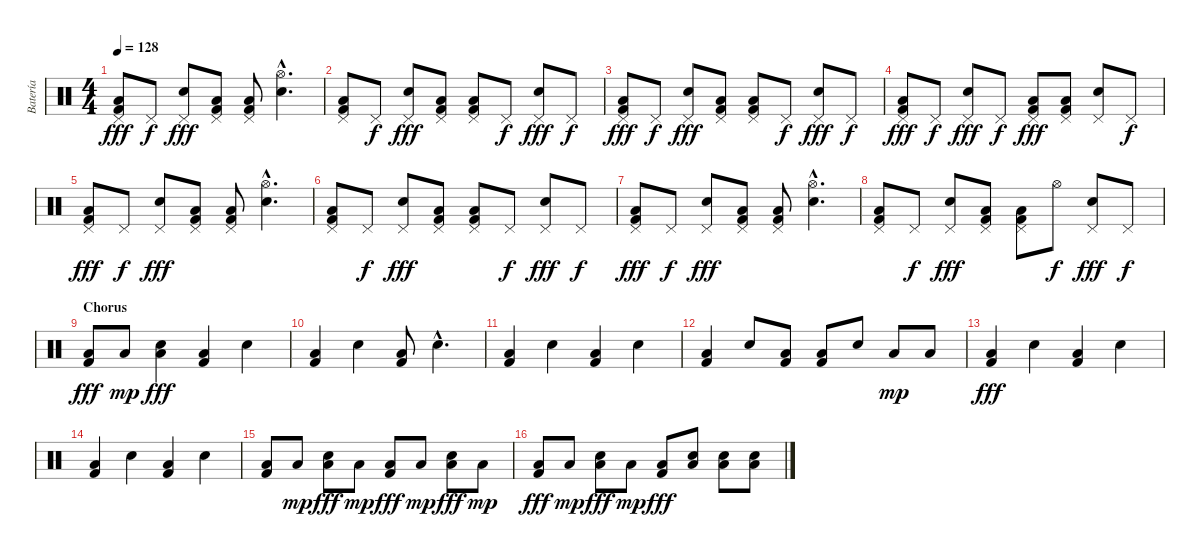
\track ("Batería" "Batería") {instrument percussion}
\staff {score}
\articulation defaults
\ts (4 4)
\tempo 128
\clef neutral
\ks c
("Low Floor Tom (hit)" "Kick (hit) 2" "Pedal Hi-Hat (hit)").8{dy fff} "Pedal Hi-Hat (hit)".8{dy f} ("Electric Snare (hit)" "Pedal Hi-Hat (hit)").8{dy fff} ("Low Floor Tom (hit)" "Kick (hit) 2" "Pedal Hi-Hat (hit)").8 ("Low Floor Tom (hit)" "Kick (hit) 2" "Pedal Hi-Hat (hit)").8 ("Electric Snare (hit)"{hac} "Hi-Hat (open)"{hac}).4{d} |
("Low Floor Tom (hit)" "Kick (hit) 2" "Pedal Hi-Hat (hit)").8 "Pedal Hi-Hat (hit)".8{dy f} ("Electric Snare (hit)" "Pedal Hi-Hat (hit)").8{dy fff} ("Low Floor Tom (hit)" "Kick (hit) 2" "Pedal Hi-Hat (hit)").8 ("Low Floor Tom (hit)" "Kick (hit) 2" "Pedal Hi-Hat (hit)").8 "Pedal Hi-Hat (hit)".8{dy f} ("Electric Snare (hit)" "Pedal Hi-Hat (hit)").8{dy fff} "Pedal Hi-Hat (hit)".8{dy f} |
("Low Floor Tom (hit)" "Kick (hit) 2" "Pedal Hi-Hat (hit)").8{dy fff} "Pedal Hi-Hat (hit)".8{dy f} ("Electric Snare (hit)" "Pedal Hi-Hat (hit)").8{dy fff} ("Low Floor Tom (hit)" "Kick (hit) 2" "Pedal Hi-Hat (hit)").8 ("Low Floor Tom (hit)" "Kick (hit) 2" "Pedal Hi-Hat (hit)").8 "Pedal Hi-Hat (hit)".8{dy f} ("Electric Snare (hit)" "Pedal Hi-Hat (hit)").8{dy fff} "Pedal Hi-Hat (hit)".8{dy f} |
("Low Floor Tom (hit)" "Kick (hit) 2" "Pedal Hi-Hat (hit)").8{dy fff} "Pedal Hi-Hat (hit)".8{dy f} ("Electric Snare (hit)" "Pedal Hi-Hat (hit)").8{dy fff} "Pedal Hi-Hat (hit)".8{dy f} ("Low Floor Tom (hit)" "Kick (hit) 2" "Pedal Hi-Hat (hit)").8{dy fff} ("Low Floor Tom (hit)" "Kick (hit) 2" "Pedal Hi-Hat (hit)").8 ("Electric Snare (hit)" "Pedal Hi-Hat (hit)").8 "Pedal Hi-Hat (hit)".8{dy f} |
("Low Floor Tom (hit)" "Kick (hit) 2" "Pedal Hi-Hat (hit)").8{dy fff} "Pedal Hi-Hat (hit)".8{dy f} ("Electric Snare (hit)" "Pedal Hi-Hat (hit)").8{dy fff} ("Low Floor Tom (hit)" "Kick (hit) 2" "Pedal Hi-Hat (hit)").8 ("Low Floor Tom (hit)" "Kick (hit) 2" "Pedal Hi-Hat (hit)").8 ("Electric Snare (hit)"{hac} "Hi-Hat (open)"{hac}).4{d} |
("Low Floor Tom (hit)" "Kick (hit) 2" "Pedal Hi-Hat (hit)").8 "Pedal Hi-Hat (hit)".8{dy f} ("Electric Snare (hit)" "Pedal Hi-Hat (hit)").8{dy fff} ("Low Floor Tom (hit)" "Kick (hit) 2" "Pedal Hi-Hat (hit)").8 ("Low Floor Tom (hit)" "Kick (hit) 2" "Pedal Hi-Hat (hit)").8 "Pedal Hi-Hat (hit)".8{dy f} ("Electric Snare (hit)" "Pedal Hi-Hat (hit)").8{dy fff} "Pedal Hi-Hat (hit)".8{dy f} |
("Low Floor Tom (hit)" "Kick (hit) 2" "Pedal Hi-Hat (hit)").8{dy fff} "Pedal Hi-Hat (hit)".8{dy f} ("Electric Snare (hit)" "Pedal Hi-Hat (hit)").8{dy fff} ("Low Floor Tom (hit)" "Kick (hit) 2" "Pedal Hi-Hat (hit)").8 ("Low Floor Tom (hit)" "Kick (hit) 2" "Pedal Hi-Hat (hit)").8 ("Electric Snare (hit)"{hac} "Hi-Hat (open)"{hac}).4{d} |
("Low Floor Tom (hit)" "Kick (hit) 2" "Pedal Hi-Hat (hit)").8 "Pedal Hi-Hat (hit)".8{dy f} ("Electric Snare (hit)" "Pedal Hi-Hat (hit)").8{dy fff} ("Low Floor Tom (hit)" "Kick (hit) 2" "Pedal Hi-Hat (hit)").8 ("Low Floor Tom (hit)" "Kick (hit) 2" "Pedal Hi-Hat (hit)").8 "Hi-Hat (open)".8{dy f} ("Electric Snare (hit)" "Pedal Hi-Hat (hit)").8{dy fff} "Pedal Hi-Hat (hit)".8{dy f} |
\section ("" "Chorus")
("Low Floor Tom (hit)" "Kick (hit) 2").8{dy fff} "Low Floor Tom (hit)".8{dy mp} ("Low Floor Tom (hit)" "Electric Snare (hit)").4{dy fff} ("Low Floor Tom (hit)" "Kick (hit) 2").4 "Electric Snare (hit)".4 |
("Low Floor Tom (hit)" "Kick (hit) 2").4 "Electric Snare (hit)".4 ("Low Floor Tom (hit)" "Kick (hit) 2").8 "Electric Snare (hit)"{hac}.4{d} |
("Low Floor Tom (hit)" "Kick (hit) 2").4 "Electric Snare (hit)".4 ("Low Floor Tom (hit)" "Kick (hit) 2").4 "Electric Snare (hit)".4 |
("Low Floor Tom (hit)" "Kick (hit) 2").4 "Electric Snare (hit)".8 ("Low Floor Tom (hit)" "Kick (hit) 2").8 ("Low Floor Tom (hit)" "Kick (hit) 2").8 "Electric Snare (hit)".8 "Low Floor Tom (hit)".8{dy mp} "Low Floor Tom (hit)".8 |
("Low Floor Tom (hit)" "Kick (hit) 2").4{dy fff} "Electric Snare (hit)".4 ("Low Floor Tom (hit)" "Kick (hit) 2").4 "Electric Snare (hit)".4 |
("Low Floor Tom (hit)" "Kick (hit) 2").4 "Electric Snare (hit)".4 ("Low Floor Tom (hit)" "Kick (hit) 2").4 "Electric Snare (hit)".4 |
("Low Floor Tom (hit)" "Kick (hit) 2").8 "Low Floor Tom (hit)".8{dy mp} ("Low Floor Tom (hit)" "Electric Snare (hit)").8{dy fff} "Low Floor Tom (hit)".8{dy mp} ("Low Floor Tom (hit)" "Kick (hit) 2").8{dy fff} "Low Floor Tom (hit)".8{dy mp} ("Low Floor Tom (hit)" "Electric Snare (hit)").8{dy fff} "Low Floor Tom (hit)".8{dy mp} |
("Low Floor Tom (hit)" "Kick (hit) 2").8{dy fff} "Low Floor Tom (hit)".8{dy mp} ("Low Floor Tom (hit)" "Electric Snare (hit)").8{dy fff} "Low Floor Tom (hit)".8{dy mp} ("Low Floor Tom (hit)" "Kick (hit) 2").8{dy fff} ("Low Floor Tom (hit)" "Electric Snare (hit)").8 ("Low Floor Tom (hit)" "Electric Snare (hit)").8 ("Low Floor Tom (hit)" "Electric Snare (hit)").8
